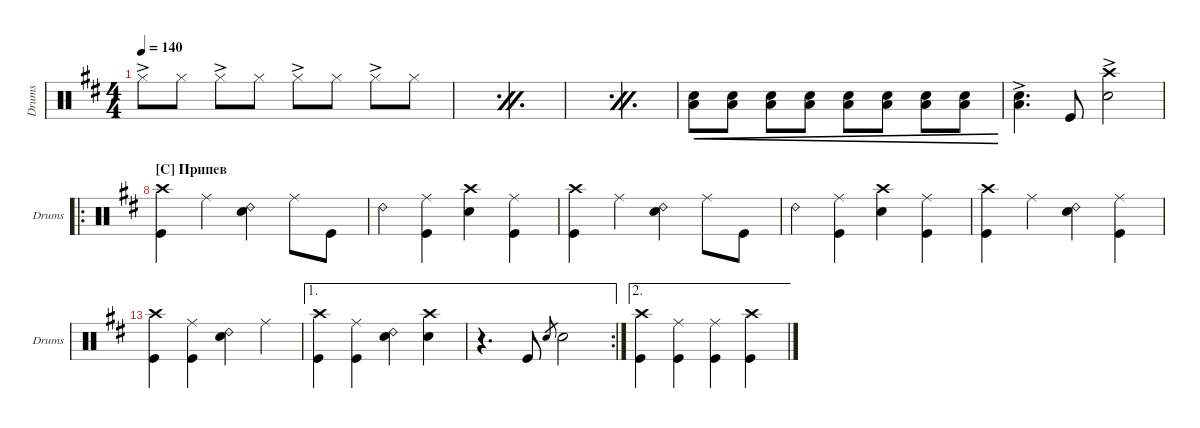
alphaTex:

\defaultSystemsLayout 4
\hideDynamics
\bracketExtendMode groupsimilarinstruments
\singleTrackTrackNamePolicy allsystems
\multiTrackTrackNamePolicy allsystems
\otherSystemsTrackNameOrientation horizontal
\defaultBarNumberDisplay FirstOfSystem
\track ("Drumkit" "Drums") {instrument percussion}
\staff {score}
\articulation defaults
\ts (4 4)
\tempo 140
\clef neutral
\ks bminor "Hi-Hat (closed)"{ac}.8{dy mp} "Hi-Hat (closed)".8 "Hi-Hat (closed)"{ac}.8 "Hi-Hat (closed)".8 "Hi-Hat (closed)"{ac}.8 "Hi-Hat (closed)".8 "Hi-Hat (closed)"{ac}.8 "Hi-Hat (closed)".8
|
\simile firstofdouble
|
\simile secondofdouble
|
\simile firstofdouble
|
\simile secondofdouble
|
("Low Tom (hit)" "Snare (hit) 2").8{cre dy mf} ("Low Tom (hit)" "Snare (hit) 2").8{cre} ("Low Tom (hit)" "Snare (hit) 2").8{cre} ("Low Tom (hit)" "Snare (hit) 2").8{cre} ("Low Tom (hit)" "Snare (hit) 2").8{cre} ("Low Tom (hit)" "Snare (hit) 2").8{cre} ("Low Tom (hit)" "Snare (hit) 2").8{cre} ("Low Tom (hit)" "Snare (hit) 2").8{cre} |
("Low Tom (hit)"{ac} "Snare (hit) 2"{ac}).4{d} "Kick (hit)".8 ("Snare (hit) 2"{ac} "Crash high (hit)"{ac}).2 |
\ro
\section ("C" "Припев")
("Crash high (hit)" "Kick (hit)").4 "Ride (middle)".4 ("Ride (bell) 2" "Snare (hit) 2").4 "Ride (middle)".8 "Kick (hit)".8 |
"Ride (bell) 2".4 ("Ride (middle)" "Kick (hit)").4 ("Crash high (hit)" "Snare (hit) 2").4 ("Ride (middle)" "Kick (hit)").4 |
("Crash high (hit)" "Kick (hit)").4 "Ride (middle)".4 ("Ride (bell) 2" "Snare (hit) 2").4 "Ride (middle)".8 "Kick (hit)".8 |
"Ride (bell) 2".4 ("Ride (middle)" "Kick (hit)").4 ("Crash high (hit)" "Snare (hit) 2").4 ("Ride (middle)" "Kick (hit)").4 |
("Crash high (hit)" "Kick (hit)").4 "Ride (middle)".4 ("Ride (bell) 2" "Snare (hit) 2").4 ("Ride (middle)" "Kick (hit)").4 |
("Crash high (hit)" "Kick (hit)").4 ("Ride (middle)" "Kick (hit)").4 ("Ride (bell) 2" "Snare (hit) 2").4 "Ride (middle)".4 |
\ae 1
("Crash high (hit)" "Kick (hit)").4 ("Ride (middle)" "Kick (hit)").4 ("Ride (bell) 2" "Snare (hit) 2").4 ("Snare (hit) 2" "Crash high (hit)").4 |
\ae 1
\rc 2
r.4{d} "Kick (hit)".8 "Snare (hit) 2".8{gr} "Snare (hit) 2".2 |
\ae 2
("Crash high (hit)" "Kick (hit)").4 ("Ride (middle)" "Kick (hit)").4 ("Kick (hit)" "Ride (middle)").4 ("Kick (hit)" "Crash high (hit)").4{dy mp}
